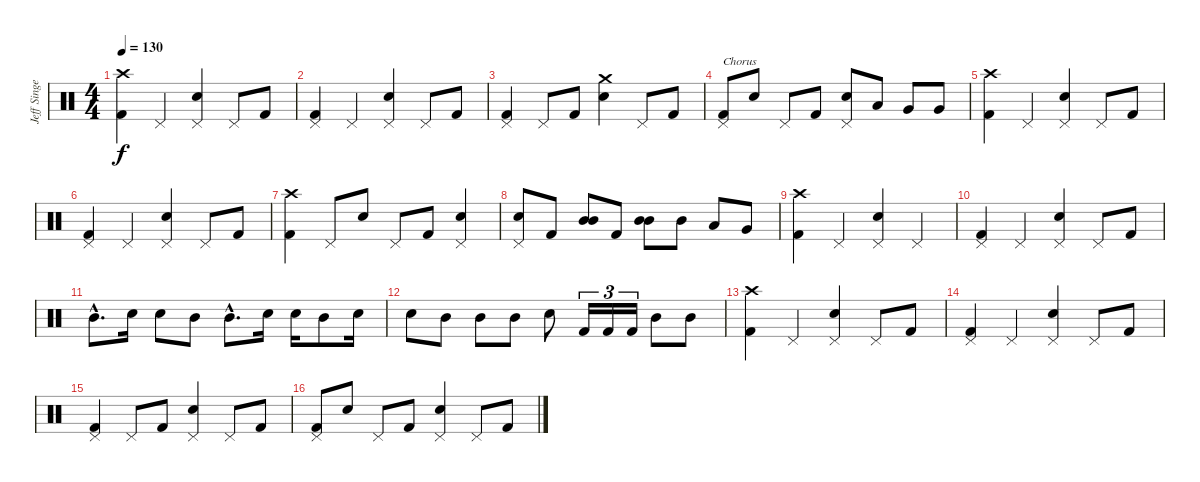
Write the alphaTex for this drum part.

\track ("Jeff Singer" "Jeff Singe") {instrument percussion}
\staff {score}
\articulation defaults
\ts (4 4)
\tempo 130
\clef neutral
\ks c
("Crash high (hit)" "Kick (hit) 2").4{dy f} "Pedal Hi-Hat (hit)".4 ("Pedal Hi-Hat (hit)" "Snare (hit) 2").4 "Pedal Hi-Hat (hit)".8 "Kick (hit) 2".8 |
("Pedal Hi-Hat (hit)" "Kick (hit) 2").4 "Pedal Hi-Hat (hit)".4 ("Pedal Hi-Hat (hit)" "Snare (hit) 2").4 "Pedal Hi-Hat (hit)".8 "Kick (hit) 2".8 |
("Pedal Hi-Hat (hit)" "Kick (hit) 2").4 "Pedal Hi-Hat (hit)".8 "Kick (hit) 2".8 ("Crash medium (hit)" "Snare (hit) 2").4 "Pedal Hi-Hat (hit)".8 "Kick (hit) 2".8 |
("Pedal Hi-Hat (hit)" "Kick (hit) 2").8{txt "Chorus"} "Snare (hit) 2".8 "Pedal Hi-Hat (hit)".8 "Kick (hit) 2".8 ("Pedal Hi-Hat (hit)" "Snare (hit) 2").8 "Low Tom (hit)".8 "Very Low Tom (hit)".8 "Very Low Tom (hit)".8 |
("Crash high (hit)" "Kick (hit) 2").4 "Pedal Hi-Hat (hit)".4 ("Pedal Hi-Hat (hit)" "Snare (hit) 2").4 "Pedal Hi-Hat (hit)".8 "Kick (hit) 2".8 |
("Pedal Hi-Hat (hit)" "Kick (hit) 2").4 "Pedal Hi-Hat (hit)".4 ("Pedal Hi-Hat (hit)" "Snare (hit) 2").4 "Pedal Hi-Hat (hit)".8 "Kick (hit) 2".8 |
("Crash high (hit)" "Kick (hit) 2").4 "Pedal Hi-Hat (hit)".8 "Snare (hit) 2".8 "Pedal Hi-Hat (hit)".8 "Kick (hit) 2".8 ("Pedal Hi-Hat (hit)" "Snare (hit) 2").4 |
("Pedal Hi-Hat (hit)" "Snare (hit) 2").8 "Kick (hit) 2".8 ("Mid Tom (hit)" "Mid Tom (hit)").8 "Kick (hit) 2".8 ("Mid Tom (hit)" "Mid Tom (hit)").8 "Mid Tom (hit)".8 "Low Tom (hit)".8 "Very Low Tom (hit)".8 |
("Crash high (hit)" "Kick (hit) 2").4 "Pedal Hi-Hat (hit)".4 ("Pedal Hi-Hat (hit)" "Snare (hit) 2").4 "Pedal Hi-Hat (hit)".4 |
("Pedal Hi-Hat (hit)" "Kick (hit) 2").4 "Pedal Hi-Hat (hit)".4 ("Pedal Hi-Hat (hit)" "Snare (hit) 2").4 "Pedal Hi-Hat (hit)".8 "Kick (hit) 2".8 |
"Mid Tom (hit)"{hac}.8{d} "Snare (hit) 2".16 "Snare (hit) 2".8 "Mid Tom (hit)".8 "Mid Tom (hit)"{hac}.8{d} "Snare (hit) 2".16 "Snare (hit) 2".16 "Mid Tom (hit)".8 "Snare (hit) 2".16 |
"Snare (hit) 2".8 "Mid Tom (hit)".8 "Mid Tom (hit)".8 "Mid Tom (hit)".8 "Snare (hit) 2".8 "Kick (hit) 2".16{tu (3 2)} "Kick (hit) 2".16{tu (3 2)} "Kick (hit) 2".16{tu (3 2)} "Mid Tom (hit)".8 "Mid Tom (hit)".8 |
("Crash high (hit)" "Kick (hit) 2").4 "Pedal Hi-Hat (hit)".4 ("Pedal Hi-Hat (hit)" "Snare (hit) 2").4 "Pedal Hi-Hat (hit)".8 "Kick (hit) 2".8 |
("Pedal Hi-Hat (hit)" "Kick (hit) 2").4 "Pedal Hi-Hat (hit)".4 ("Pedal Hi-Hat (hit)" "Snare (hit) 2").4 "Pedal Hi-Hat (hit)".8 "Kick (hit) 2".8 |
("Pedal Hi-Hat (hit)" "Kick (hit) 2").4 "Pedal Hi-Hat (hit)".8 "Kick (hit) 2".8 ("Pedal Hi-Hat (hit)" "Snare (hit) 2").4 "Pedal Hi-Hat (hit)".8 "Kick (hit) 2".8 |
("Pedal Hi-Hat (hit)" "Kick (hit) 2").8 "Snare (hit) 2".8 "Pedal Hi-Hat (hit)".8 "Kick (hit) 2".8 ("Pedal Hi-Hat (hit)" "Snare (hit) 2").4 "Pedal Hi-Hat (hit)".8 "Kick (hit) 2".8
